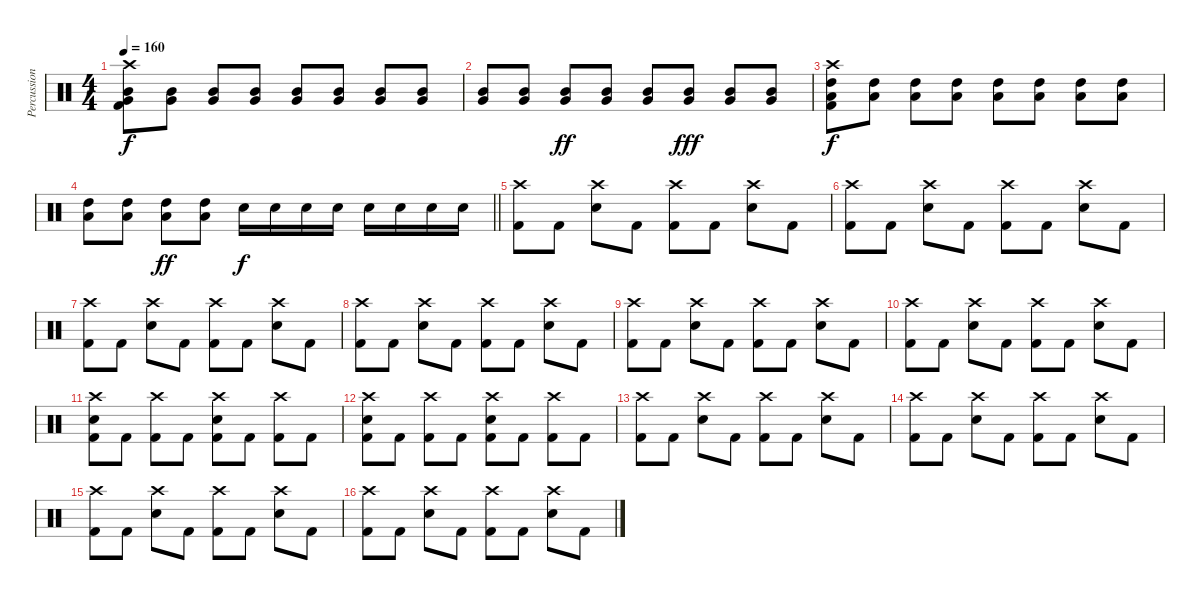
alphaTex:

\track ("Percussion" "Percussion") {instrument percussion}
\staff {score}
\articulation defaults
\ts (4 4)
\section ("" "")
\tempo 160
\clef neutral
\ks c
("Crash high (hit)" "Mid Tom (hit)" "Very Low Tom (hit)" "Kick (hit) 2").8{dy f} ("Mid Tom (hit)" "Very Low Tom (hit)").8 ("Mid Tom (hit)" "Very Low Tom (hit)").8 ("Mid Tom (hit)" "Very Low Tom (hit)").8 ("Mid Tom (hit)" "Very Low Tom (hit)").8 ("Mid Tom (hit)" "Very Low Tom (hit)").8 ("Mid Tom (hit)" "Very Low Tom (hit)").8 ("Mid Tom (hit)" "Very Low Tom (hit)").8 |
("Mid Tom (hit)" "Very Low Tom (hit)").8 ("Mid Tom (hit)" "Very Low Tom (hit)").8 ("Mid Tom (hit)" "Very Low Tom (hit)").8{dy ff} ("Mid Tom (hit)" "Very Low Tom (hit)").8 ("Mid Tom (hit)" "Very Low Tom (hit)").8 ("Mid Tom (hit)" "Very Low Tom (hit)").8{dy fff} ("Mid Tom (hit)" "Very Low Tom (hit)").8 ("Mid Tom (hit)" "Very Low Tom (hit)").8 |
("Crash high (hit)" "High Tom (hit)" "Low Tom (hit)" "Kick (hit) 2").8{dy f} ("High Tom (hit)" "Low Tom (hit)").8 ("High Tom (hit)" "Low Tom (hit)").8 ("High Tom (hit)" "Low Tom (hit)").8 ("High Tom (hit)" "Low Tom (hit)").8 ("High Tom (hit)" "Low Tom (hit)").8 ("High Tom (hit)" "Low Tom (hit)").8 ("High Tom (hit)" "Low Tom (hit)").8 |
\barLineRight lightlight
("High Tom (hit)" "Low Tom (hit)").8 ("High Tom (hit)" "Low Tom (hit)").8 ("High Tom (hit)" "Low Tom (hit)").8{dy ff} ("High Tom (hit)" "Low Tom (hit)").8 "Snare (hit) 2".16{dy f} "Snare (hit) 2".16 "Snare (hit) 2".16 "Snare (hit) 2".16 "Snare (hit) 2".16 "Snare (hit) 2".16 "Snare (hit) 2".16 "Snare (hit) 2".16 |
\section ("" "")
("Crash high (hit)" "Kick (hit) 2").8 "Kick (hit) 2".8 ("Crash high (hit)" "Snare (hit) 2").8 "Kick (hit) 2".8 ("Crash high (hit)" "Kick (hit) 2").8 "Kick (hit) 2".8 ("Crash high (hit)" "Snare (hit) 2").8 "Kick (hit) 2".8 |
("Crash high (hit)" "Kick (hit) 2").8 "Kick (hit) 2".8 ("Crash high (hit)" "Snare (hit) 2").8 "Kick (hit) 2".8 ("Crash high (hit)" "Kick (hit) 2").8 "Kick (hit) 2".8 ("Crash high (hit)" "Snare (hit) 2").8 "Kick (hit) 2".8 |
("Crash high (hit)" "Kick (hit) 2").8 "Kick (hit) 2".8 ("Crash high (hit)" "Snare (hit) 2").8 "Kick (hit) 2".8 ("Crash high (hit)" "Kick (hit) 2").8 "Kick (hit) 2".8 ("Crash high (hit)" "Snare (hit) 2").8 "Kick (hit) 2".8 |
("Crash high (hit)" "Kick (hit) 2").8 "Kick (hit) 2".8 ("Crash high (hit)" "Snare (hit) 2").8 "Kick (hit) 2".8 ("Crash high (hit)" "Kick (hit) 2").8 "Kick (hit) 2".8 ("Crash high (hit)" "Snare (hit) 2").8 "Kick (hit) 2".8 |
("Crash high (hit)" "Kick (hit) 2").8 "Kick (hit) 2".8 ("Crash high (hit)" "Snare (hit) 2").8 "Kick (hit) 2".8 ("Crash high (hit)" "Kick (hit) 2").8 "Kick (hit) 2".8 ("Crash high (hit)" "Snare (hit) 2").8 "Kick (hit) 2".8 |
("Crash high (hit)" "Kick (hit) 2").8 "Kick (hit) 2".8 ("Crash high (hit)" "Snare (hit) 2").8 "Kick (hit) 2".8 ("Crash high (hit)" "Kick (hit) 2").8 "Kick (hit) 2".8 ("Crash high (hit)" "Snare (hit) 2").8 "Kick (hit) 2".8 |
("Crash high (hit)" "Snare (hit) 2" "Kick (hit) 2").8 "Kick (hit) 2".8 ("Crash high (hit)" "Kick (hit) 2").8 "Kick (hit) 2".8 ("Crash high (hit)" "Snare (hit) 2" "Kick (hit) 2").8 "Kick (hit) 2".8 ("Crash high (hit)" "Kick (hit) 2").8 "Kick (hit) 2".8 |
("Crash high (hit)" "Snare (hit) 2" "Kick (hit) 2").8 "Kick (hit) 2".8 ("Crash high (hit)" "Kick (hit) 2").8 "Kick (hit) 2".8 ("Crash high (hit)" "Snare (hit) 2" "Kick (hit) 2").8 "Kick (hit) 2".8 ("Crash high (hit)" "Kick (hit) 2").8 "Kick (hit) 2".8 |
("Crash high (hit)" "Kick (hit) 2").8 "Kick (hit) 2".8 ("Crash high (hit)" "Snare (hit) 2").8 "Kick (hit) 2".8 ("Crash high (hit)" "Kick (hit) 2").8 "Kick (hit) 2".8 ("Crash high (hit)" "Snare (hit) 2").8 "Kick (hit) 2".8 |
("Crash high (hit)" "Kick (hit) 2").8 "Kick (hit) 2".8 ("Crash high (hit)" "Snare (hit) 2").8 "Kick (hit) 2".8 ("Crash high (hit)" "Kick (hit) 2").8 "Kick (hit) 2".8 ("Crash high (hit)" "Snare (hit) 2").8 "Kick (hit) 2".8 |
("Crash high (hit)" "Kick (hit) 2").8 "Kick (hit) 2".8 ("Crash high (hit)" "Snare (hit) 2").8 "Kick (hit) 2".8 ("Crash high (hit)" "Kick (hit) 2").8 "Kick (hit) 2".8 ("Crash high (hit)" "Snare (hit) 2").8 "Kick (hit) 2".8 |
("Crash high (hit)" "Kick (hit) 2").8 "Kick (hit) 2".8 ("Crash high (hit)" "Snare (hit) 2").8 "Kick (hit) 2".8 ("Crash high (hit)" "Kick (hit) 2").8 "Kick (hit) 2".8 ("Crash high (hit)" "Snare (hit) 2").8 "Kick (hit) 2".8
